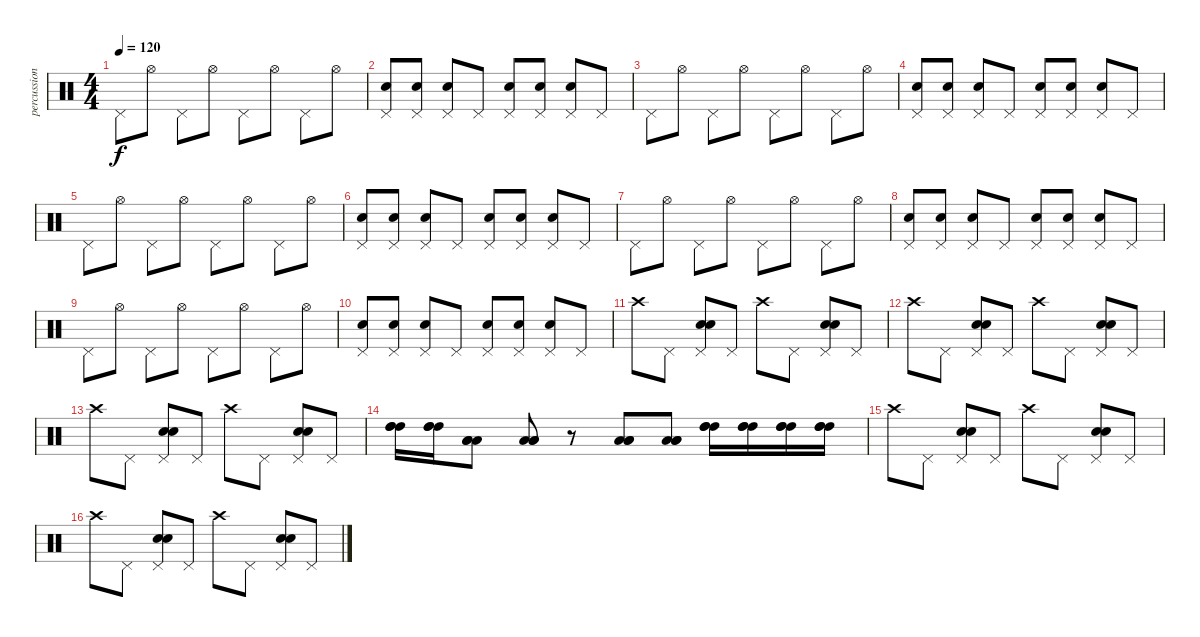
\track ("percussion" "percussion") {instrument percussion}
\staff {score}
\articulation defaults
\ts (4 4)
\tempo 120
\clef neutral
\ks c "Pedal Hi-Hat (hit)".8{dy f} "Hi-Hat (open)".8 "Pedal Hi-Hat (hit)".8 "Hi-Hat (open)".8 "Pedal Hi-Hat (hit)".8 "Hi-Hat (open)".8 "Pedal Hi-Hat (hit)".8 "Hi-Hat (open)".8
|
("Snare (hit) 2" "Pedal Hi-Hat (hit)").8 ("Snare (hit) 2" "Pedal Hi-Hat (hit)").8 ("Snare (hit) 2" "Pedal Hi-Hat (hit)").8 "Pedal Hi-Hat (hit)".8 ("Snare (hit) 2" "Pedal Hi-Hat (hit)").8 ("Snare (hit) 2" "Pedal Hi-Hat (hit)").8 ("Snare (hit) 2" "Pedal Hi-Hat (hit)").8 "Pedal Hi-Hat (hit)".8 |
"Pedal Hi-Hat (hit)".8 "Hi-Hat (open)".8 "Pedal Hi-Hat (hit)".8 "Hi-Hat (open)".8 "Pedal Hi-Hat (hit)".8 "Hi-Hat (open)".8 "Pedal Hi-Hat (hit)".8 "Hi-Hat (open)".8 |
("Snare (hit) 2" "Pedal Hi-Hat (hit)").8 ("Snare (hit) 2" "Pedal Hi-Hat (hit)").8 ("Snare (hit) 2" "Pedal Hi-Hat (hit)").8 "Pedal Hi-Hat (hit)".8 ("Snare (hit) 2" "Pedal Hi-Hat (hit)").8 ("Snare (hit) 2" "Pedal Hi-Hat (hit)").8 ("Snare (hit) 2" "Pedal Hi-Hat (hit)").8 "Pedal Hi-Hat (hit)".8 |
"Pedal Hi-Hat (hit)".8 "Hi-Hat (open)".8 "Pedal Hi-Hat (hit)".8 "Hi-Hat (open)".8 "Pedal Hi-Hat (hit)".8 "Hi-Hat (open)".8 "Pedal Hi-Hat (hit)".8 "Hi-Hat (open)".8 |
("Snare (hit) 2" "Pedal Hi-Hat (hit)").8 ("Snare (hit) 2" "Pedal Hi-Hat (hit)").8 ("Snare (hit) 2" "Pedal Hi-Hat (hit)").8 "Pedal Hi-Hat (hit)".8 ("Snare (hit) 2" "Pedal Hi-Hat (hit)").8 ("Snare (hit) 2" "Pedal Hi-Hat (hit)").8 ("Snare (hit) 2" "Pedal Hi-Hat (hit)").8 "Pedal Hi-Hat (hit)".8 |
"Pedal Hi-Hat (hit)".8 "Hi-Hat (open)".8 "Pedal Hi-Hat (hit)".8 "Hi-Hat (open)".8 "Pedal Hi-Hat (hit)".8 "Hi-Hat (open)".8 "Pedal Hi-Hat (hit)".8 "Hi-Hat (open)".8 |
("Snare (hit) 2" "Pedal Hi-Hat (hit)").8 ("Snare (hit) 2" "Pedal Hi-Hat (hit)").8 ("Snare (hit) 2" "Pedal Hi-Hat (hit)").8 "Pedal Hi-Hat (hit)".8 ("Snare (hit) 2" "Pedal Hi-Hat (hit)").8 ("Snare (hit) 2" "Pedal Hi-Hat (hit)").8 ("Snare (hit) 2" "Pedal Hi-Hat (hit)").8 "Pedal Hi-Hat (hit)".8 |
"Pedal Hi-Hat (hit)".8 "Hi-Hat (open)".8 "Pedal Hi-Hat (hit)".8 "Hi-Hat (open)".8 "Pedal Hi-Hat (hit)".8 "Hi-Hat (open)".8 "Pedal Hi-Hat (hit)".8 "Hi-Hat (open)".8 |
("Snare (hit) 2" "Pedal Hi-Hat (hit)").8 ("Snare (hit) 2" "Pedal Hi-Hat (hit)").8 ("Snare (hit) 2" "Pedal Hi-Hat (hit)").8 "Pedal Hi-Hat (hit)".8 ("Snare (hit) 2" "Pedal Hi-Hat (hit)").8 ("Snare (hit) 2" "Pedal Hi-Hat (hit)").8 ("Snare (hit) 2" "Pedal Hi-Hat (hit)").8 "Pedal Hi-Hat (hit)".8 |
"Crash high (hit)".8 "Pedal Hi-Hat (hit)".8 ("Pedal Hi-Hat (hit)" "Snare (hit) 2" "Snare (hit) 2").8 "Pedal Hi-Hat (hit)".8 "Crash high (hit)".8 "Pedal Hi-Hat (hit)".8 ("Pedal Hi-Hat (hit)" "Snare (hit) 2" "Snare (hit) 2").8 "Pedal Hi-Hat (hit)".8 |
"Crash high (hit)".8 "Pedal Hi-Hat (hit)".8 ("Pedal Hi-Hat (hit)" "Snare (hit) 2" "Snare (hit) 2").8 "Pedal Hi-Hat (hit)".8 "Crash high (hit)".8 "Pedal Hi-Hat (hit)".8 ("Pedal Hi-Hat (hit)" "Snare (hit) 2" "Snare (hit) 2").8 "Pedal Hi-Hat (hit)".8 |
"Crash high (hit)".8 "Pedal Hi-Hat (hit)".8 ("Pedal Hi-Hat (hit)" "Snare (hit) 2" "Snare (hit) 2").8 "Pedal Hi-Hat (hit)".8 "Crash high (hit)".8 "Pedal Hi-Hat (hit)".8 ("Pedal Hi-Hat (hit)" "Snare (hit) 2" "Snare (hit) 2").8 "Pedal Hi-Hat (hit)".8 |
("High Tom (hit)" "High Tom (hit)" "High Tom (hit)").16 ("High Tom (hit)" "High Tom (hit)" "High Tom (hit)").16 ("Low Tom (hit)" "Low Tom (hit)" "Low Tom (hit)").8 ("Low Tom (hit)" "Low Tom (hit)" "Low Tom (hit)").8 r.8 ("Low Tom (hit)" "Low Tom (hit)" "Low Tom (hit)").8 ("Low Tom (hit)" "Low Tom (hit)" "Low Tom (hit)").8 ("High Tom (hit)" "High Tom (hit)" "High Tom (hit)").16 ("High Tom (hit)" "High Tom (hit)" "High Tom (hit)").16 ("High Tom (hit)" "High Tom (hit)" "High Tom (hit)").16 ("High Tom (hit)" "High Tom (hit)" "High Tom (hit)").16 |
"Crash high (hit)".8 "Pedal Hi-Hat (hit)".8 ("Pedal Hi-Hat (hit)" "Snare (hit) 2" "Snare (hit) 2").8 "Pedal Hi-Hat (hit)".8 "Crash high (hit)".8 "Pedal Hi-Hat (hit)".8 ("Pedal Hi-Hat (hit)" "Snare (hit) 2" "Snare (hit) 2").8 "Pedal Hi-Hat (hit)".8 |
"Crash high (hit)".8 "Pedal Hi-Hat (hit)".8 ("Pedal Hi-Hat (hit)" "Snare (hit) 2" "Snare (hit) 2").8 "Pedal Hi-Hat (hit)".8 "Crash high (hit)".8 "Pedal Hi-Hat (hit)".8 ("Pedal Hi-Hat (hit)" "Snare (hit) 2" "Snare (hit) 2").8 "Pedal Hi-Hat (hit)".8
